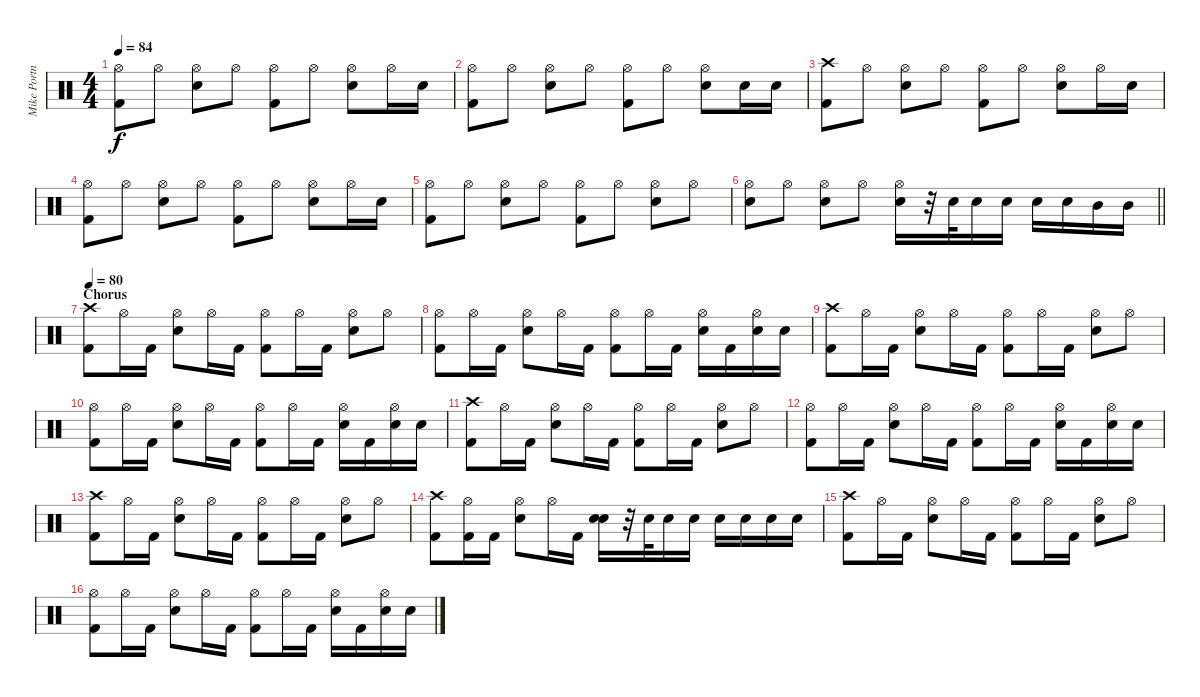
\track ("Mike Portnoy" "Mike Portn") {instrument percussion}
\staff {score}
\articulation defaults
\ts (4 4)
\tempo 84
\clef neutral
\ks c
("Kick (hit) 2" "Hi-Hat (open)").8{dy f} "Hi-Hat (open)".8 ("Electric Snare (hit)" "Hi-Hat (open)").8 "Hi-Hat (open)".8 ("Kick (hit) 2" "Hi-Hat (open)").8 "Hi-Hat (open)".8 ("Electric Snare (hit)" "Hi-Hat (open)").8 "Hi-Hat (open)".16 "Electric Snare (hit)".16 |
("Kick (hit) 2" "Hi-Hat (open)").8 "Hi-Hat (open)".8 ("Electric Snare (hit)" "Hi-Hat (open)").8 "Hi-Hat (open)".8 ("Kick (hit) 2" "Hi-Hat (open)").8 "Hi-Hat (open)".8 ("Electric Snare (hit)" "Hi-Hat (open)").8 "Electric Snare (hit)".16 "Electric Snare (hit)".16 |
("Kick (hit) 2" "Crash high (hit)").8 "Hi-Hat (open)".8 ("Electric Snare (hit)" "Hi-Hat (open)").8 "Hi-Hat (open)".8 ("Kick (hit) 2" "Hi-Hat (open)").8 "Hi-Hat (open)".8 ("Electric Snare (hit)" "Hi-Hat (open)").8 "Hi-Hat (open)".16 "Electric Snare (hit)".16 |
("Kick (hit) 2" "Hi-Hat (open)").8 "Hi-Hat (open)".8 ("Electric Snare (hit)" "Hi-Hat (open)").8 "Hi-Hat (open)".8 ("Kick (hit) 2" "Hi-Hat (open)").8 "Hi-Hat (open)".8 ("Electric Snare (hit)" "Hi-Hat (open)").8 "Hi-Hat (open)".16 "Electric Snare (hit)".16 |
("Kick (hit) 2" "Hi-Hat (open)").8 "Hi-Hat (open)".8 ("Electric Snare (hit)" "Hi-Hat (open)").8 "Hi-Hat (open)".8 ("Kick (hit) 2" "Hi-Hat (open)").8 "Hi-Hat (open)".8 ("Electric Snare (hit)" "Hi-Hat (open)").8 "Hi-Hat (open)".8 |
\barLineRight lightlight
("Electric Snare (hit)" "Hi-Hat (open)").8 "Hi-Hat (open)".8 ("Electric Snare (hit)" "Hi-Hat (open)").8 "Hi-Hat (open)".8 ("Electric Snare (hit)" "Hi-Hat (open)").16 r.32 "Electric Snare (hit)".32 "Electric Snare (hit)".16 "Electric Snare (hit)".16 "Electric Snare (hit)".16 "Electric Snare (hit)".16 "Mid Tom (hit)".16 "Mid Tom (hit)".16 |
\section ("" "Chorus")
\tempo 80
("Kick (hit) 2" "Crash high (hit)").8 "Hi-Hat (open)".16 "Kick (hit) 2".16 ("Electric Snare (hit)" "Hi-Hat (open)").8 "Hi-Hat (open)".16 "Kick (hit) 2".16 ("Kick (hit) 2" "Hi-Hat (open)").8 "Hi-Hat (open)".16 "Kick (hit) 2".16 ("Electric Snare (hit)" "Hi-Hat (open)").8 "Hi-Hat (open)".8 |
("Kick (hit) 2" "Hi-Hat (open)").8 "Hi-Hat (open)".16 "Kick (hit) 2".16 ("Electric Snare (hit)" "Hi-Hat (open)").8 "Hi-Hat (open)".16 "Kick (hit) 2".16 ("Kick (hit) 2" "Hi-Hat (open)").8 "Hi-Hat (open)".16 "Kick (hit) 2".16 ("Electric Snare (hit)" "Hi-Hat (open)").16 "Kick (hit) 2".16 ("Electric Snare (hit)" "Hi-Hat (open)").16 "Electric Snare (hit)".16 |
("Kick (hit) 2" "Crash high (hit)").8 "Hi-Hat (open)".16 "Kick (hit) 2".16 ("Electric Snare (hit)" "Hi-Hat (open)").8 "Hi-Hat (open)".16 "Kick (hit) 2".16 ("Kick (hit) 2" "Hi-Hat (open)").8 "Hi-Hat (open)".16 "Kick (hit) 2".16 ("Electric Snare (hit)" "Hi-Hat (open)").8 "Hi-Hat (open)".8 |
("Kick (hit) 2" "Hi-Hat (open)").8 "Hi-Hat (open)".16 "Kick (hit) 2".16 ("Electric Snare (hit)" "Hi-Hat (open)").8 "Hi-Hat (open)".16 "Kick (hit) 2".16 ("Kick (hit) 2" "Hi-Hat (open)").8 "Hi-Hat (open)".16 "Kick (hit) 2".16 ("Electric Snare (hit)" "Hi-Hat (open)").16 "Kick (hit) 2".16 ("Electric Snare (hit)" "Hi-Hat (open)").16 "Electric Snare (hit)".16 |
("Kick (hit) 2" "Crash high (hit)").8 "Hi-Hat (open)".16 "Kick (hit) 2".16 ("Electric Snare (hit)" "Hi-Hat (open)").8 "Hi-Hat (open)".16 "Kick (hit) 2".16 ("Kick (hit) 2" "Hi-Hat (open)").8 "Hi-Hat (open)".16 "Kick (hit) 2".16 ("Electric Snare (hit)" "Hi-Hat (open)").8 "Hi-Hat (open)".8 |
("Kick (hit) 2" "Hi-Hat (open)").8 "Hi-Hat (open)".16 "Kick (hit) 2".16 ("Electric Snare (hit)" "Hi-Hat (open)").8 "Hi-Hat (open)".16 "Kick (hit) 2".16 ("Kick (hit) 2" "Hi-Hat (open)").8 "Hi-Hat (open)".16 "Kick (hit) 2".16 ("Electric Snare (hit)" "Hi-Hat (open)").16 "Kick (hit) 2".16 ("Electric Snare (hit)" "Hi-Hat (open)").16 "Electric Snare (hit)".16 |
("Kick (hit) 2" "Crash high (hit)").8 "Hi-Hat (open)".16 "Kick (hit) 2".16 ("Electric Snare (hit)" "Hi-Hat (open)").8 "Hi-Hat (open)".16 "Kick (hit) 2".16 ("Kick (hit) 2" "Hi-Hat (open)").8 "Hi-Hat (open)".16 "Kick (hit) 2".16 ("Electric Snare (hit)" "Hi-Hat (open)").8 "Hi-Hat (open)".8 |
("Kick (hit) 2" "Crash high (hit)").8 ("Kick (hit) 2" "Hi-Hat (open)").16 "Kick (hit) 2".16 ("Electric Snare (hit)" "Hi-Hat (open)").8 "Hi-Hat (open)".16 "Kick (hit) 2".16 ("Electric Snare (hit)" "Electric Snare (hit)").16{bu 240} r.32 "Electric Snare (hit)".32 "Electric Snare (hit)".16 "Electric Snare (hit)".16 "Electric Snare (hit)".16 "Electric Snare (hit)".16 "Electric Snare (hit)".16 "Electric Snare (hit)".16 |
("Kick (hit) 2" "Crash high (hit)").8 "Hi-Hat (open)".16 "Kick (hit) 2".16 ("Electric Snare (hit)" "Hi-Hat (open)").8 "Hi-Hat (open)".16 "Kick (hit) 2".16 ("Kick (hit) 2" "Hi-Hat (open)").8 "Hi-Hat (open)".16 "Kick (hit) 2".16 ("Electric Snare (hit)" "Hi-Hat (open)").8 "Hi-Hat (open)".8 |
("Kick (hit) 2" "Hi-Hat (open)").8 "Hi-Hat (open)".16 "Kick (hit) 2".16 ("Electric Snare (hit)" "Hi-Hat (open)").8 "Hi-Hat (open)".16 "Kick (hit) 2".16 ("Kick (hit) 2" "Hi-Hat (open)").8 "Hi-Hat (open)".16 "Kick (hit) 2".16 ("Electric Snare (hit)" "Hi-Hat (open)").16 "Kick (hit) 2".16 ("Electric Snare (hit)" "Hi-Hat (open)").16 "Electric Snare (hit)".16
